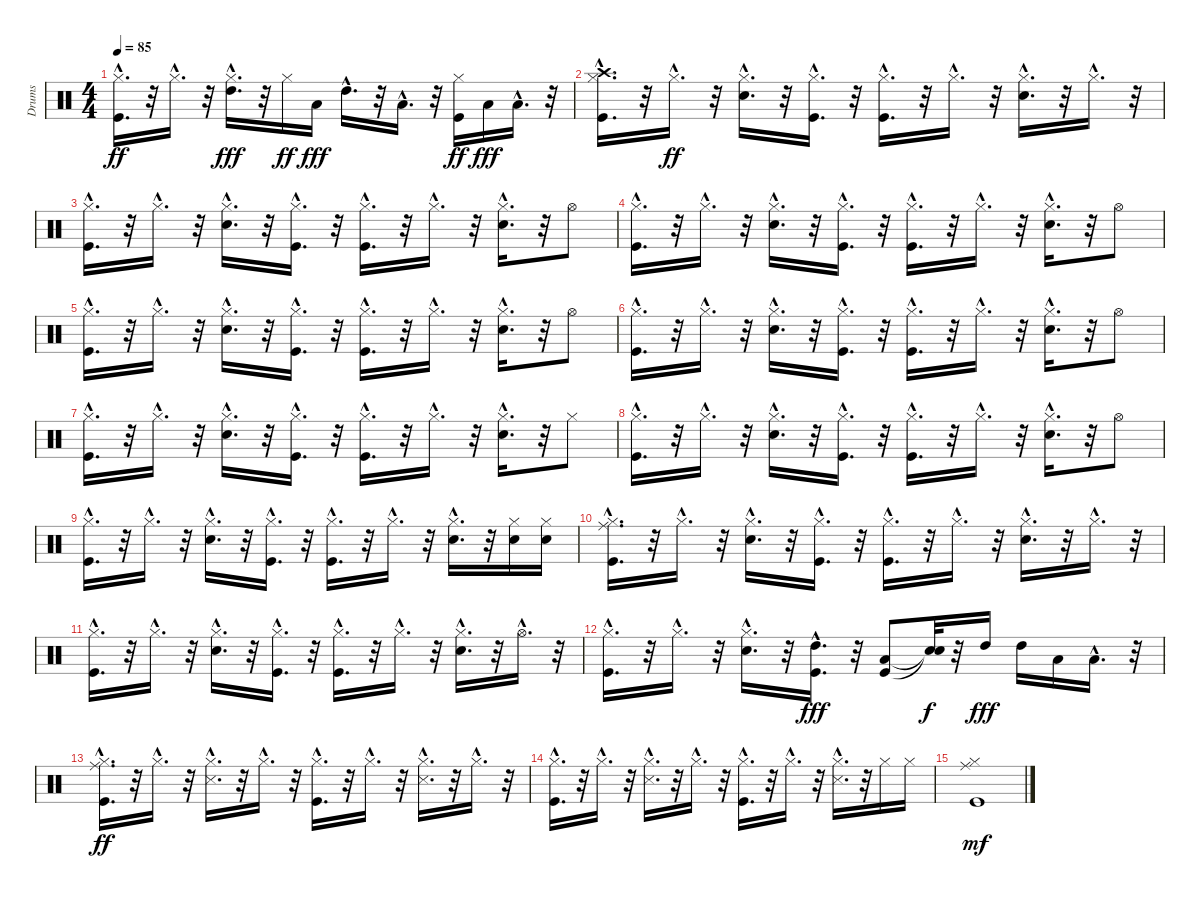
\track ("Drums" "Drums") {instrument percussion}
\staff {score}
\articulation defaults
\ts (4 4)
\tempo 85
\clef neutral
\ks c
("Hi-Hat (closed)"{hac} "Kick (hit)"{hac}).16{d dy ff} r.32 "Hi-Hat (closed)"{hac}.16{d} r.32 ("Hi-Hat (closed)"{hac} "High Tom (hit)"{hac}).16{d dy fff} r.32 "Hi-Hat (closed)".16{dy ff} "Low Tom (hit)".16{dy fff} "High Tom (hit)"{hac}.16{d} r.32 "Low Tom (hit)"{hac}.16{d} r.32 ("Hi-Hat (closed)" "Kick (hit)").16{dy ff} "Low Tom (hit)".16{dy fff} "Low Floor Tom (hit)"{hac}.16{d} r.32 |
("Hi-Hat (closed)"{hac} "Kick (hit)"{hac} "Crash high (hit)"{hac}).16{d} r.32 "Hi-Hat (closed)"{hac}.16{d dy ff} r.32 ("Hi-Hat (closed)"{hac} "Snare (hit) 2"{hac}).16{d} r.32 ("Kick (hit)"{hac} "Hi-Hat (closed)"{hac}).16{d} r.32 ("Hi-Hat (closed)"{hac} "Kick (hit)"{hac}).16{d} r.32 "Hi-Hat (closed)"{hac}.16{d} r.32 ("Hi-Hat (closed)"{hac} "Snare (hit) 2"{hac}).16{d} r.32 "Hi-Hat (closed)"{hac}.16{d} r.32 |
("Kick (hit)"{hac} "Hi-Hat (closed)"{hac}).16{d} r.32 "Hi-Hat (closed)"{hac}.16{d} r.32 ("Snare (hit) 2"{hac} "Hi-Hat (closed)"{hac}).16{d} r.32 ("Kick (hit)"{hac} "Hi-Hat (closed)"{hac}).16{d} r.32 ("Kick (hit)"{hac} "Hi-Hat (closed)"{hac}).16{d} r.32 "Hi-Hat (closed)"{hac}.16{d} r.32 ("Snare (hit) 2"{hac} "Hi-Hat (closed)"{hac}).16{d} r.32 "Hi-Hat (open)".8 |
("Hi-Hat (closed)"{hac} "Kick (hit)"{hac}).16{d} r.32 "Hi-Hat (closed)"{hac}.16{d} r.32 ("Hi-Hat (closed)"{hac} "Snare (hit) 2"{hac}).16{d} r.32 ("Kick (hit)"{hac} "Hi-Hat (closed)"{hac}).16{d} r.32 ("Hi-Hat (closed)"{hac} "Kick (hit)"{hac}).16{d} r.32 "Hi-Hat (closed)"{hac}.16{d} r.32 ("Hi-Hat (closed)"{hac} "Snare (hit) 2"{hac}).16{d} r.32 "Hi-Hat (open)".8 |
("Hi-Hat (closed)"{hac} "Kick (hit)"{hac}).16{d} r.32 "Hi-Hat (closed)"{hac}.16{d} r.32 ("Hi-Hat (closed)"{hac} "Snare (hit) 2"{hac}).16{d} r.32 ("Kick (hit)"{hac} "Hi-Hat (closed)"{hac}).16{d} r.32 ("Hi-Hat (closed)"{hac} "Kick (hit)"{hac}).16{d} r.32 "Hi-Hat (closed)"{hac}.16{d} r.32 ("Hi-Hat (closed)"{hac} "Snare (hit) 2"{hac}).16{d} r.32 "Hi-Hat (open)".8 |
("Hi-Hat (closed)"{hac} "Kick (hit)"{hac}).16{d} r.32 "Hi-Hat (closed)"{hac}.16{d} r.32 ("Hi-Hat (closed)"{hac} "Snare (hit) 2"{hac}).16{d} r.32 ("Kick (hit)"{hac} "Hi-Hat (closed)"{hac}).16{d} r.32 ("Hi-Hat (closed)"{hac} "Kick (hit)"{hac}).16{d} r.32 "Hi-Hat (closed)"{hac}.16{d} r.32 ("Hi-Hat (closed)"{hac} "Snare (hit) 2"{hac}).16{d} r.32 "Hi-Hat (open)".8 |
("Hi-Hat (closed)"{hac} "Kick (hit)"{hac}).16{d} r.32 "Hi-Hat (closed)"{hac}.16{d} r.32 ("Hi-Hat (closed)"{hac} "Snare (hit) 2"{hac}).16{d} r.32 ("Kick (hit)"{hac} "Hi-Hat (closed)"{hac}).16{d} r.32 ("Hi-Hat (closed)"{hac} "Kick (hit)"{hac}).16{d} r.32 "Hi-Hat (closed)"{hac}.16{d} r.32 ("Hi-Hat (closed)"{hac} "Snare (hit) 2"{hac}).16{d} r.32 "Hi-Hat (closed)".8 |
("Hi-Hat (closed)"{hac} "Kick (hit)"{hac}).16{d} r.32 "Hi-Hat (closed)"{hac}.16{d} r.32 ("Hi-Hat (closed)"{hac} "Snare (hit) 2"{hac}).16{d} r.32 ("Kick (hit)"{hac} "Hi-Hat (closed)"{hac}).16{d} r.32 ("Hi-Hat (closed)"{hac} "Kick (hit)"{hac}).16{d} r.32 "Hi-Hat (closed)"{hac}.16{d} r.32 ("Hi-Hat (closed)"{hac} "Snare (hit) 2"{hac}).16{d} r.32 "Hi-Hat (open)".8 |
("Hi-Hat (closed)"{hac} "Kick (hit)"{hac}).16{d} r.32 "Hi-Hat (closed)"{hac}.16{d} r.32 ("Hi-Hat (closed)"{hac} "Snare (hit) 2"{hac}).16{d} r.32 ("Kick (hit)"{hac} "Hi-Hat (closed)"{hac}).16{d} r.32 ("Hi-Hat (closed)"{hac} "Kick (hit)"{hac}).16{d} r.32 "Hi-Hat (closed)"{hac}.16{d} r.32 ("Hi-Hat (closed)"{hac} "Snare (hit) 2"{hac}).16{d} r.32 ("Hi-Hat (closed)" "Snare (hit) 2").16 ("Hi-Hat (closed)" "Snare (hit) 2").16 |
("Ride (middle)"{hac} "Hi-Hat (closed)"{hac} "Kick (hit)"{hac}).16{d} r.32 "Hi-Hat (closed)"{hac}.16{d} r.32 ("Hi-Hat (closed)"{hac} "Snare (hit) 2"{hac}).16{d} r.32 ("Kick (hit)"{hac} "Hi-Hat (closed)"{hac}).16{d} r.32 ("Hi-Hat (closed)"{hac} "Kick (hit)"{hac}).16{d} r.32 "Hi-Hat (closed)"{hac}.16{d} r.32 ("Hi-Hat (closed)"{hac} "Snare (hit) 2"{hac}).16{d} r.32 "Hi-Hat (closed)"{hac}.16{d} r.32 |
("Hi-Hat (closed)"{hac} "Kick (hit)"{hac}).16{d} r.32 "Hi-Hat (closed)"{hac}.16{d} r.32 ("Hi-Hat (closed)"{hac} "Snare (hit) 2"{hac}).16{d} r.32 ("Kick (hit)"{hac} "Hi-Hat (closed)"{hac}).16{d} r.32 ("Hi-Hat (closed)"{hac} "Kick (hit)"{hac}).16{d} r.32 "Hi-Hat (closed)"{hac}.16{d} r.32 ("Hi-Hat (closed)"{hac} "Snare (hit) 2"{hac}).16{d} r.32 "Hi-Hat (open)"{hac}.16{d} r.32 |
("Kick (hit)"{hac} "Hi-Hat (closed)"{hac}).16{d} r.32 "Hi-Hat (closed)"{hac}.16{d} r.32 ("Snare (hit) 2"{hac} "Hi-Hat (closed)"{hac}).16{d} r.32 ("Kick (hit)"{hac} "High Tom (hit)"{hac}).16{d dy fff} r.32 ("Kick (hit)" "Low Tom (hit)").8 ("Snare (hit)"{t} "Snare (hit)"{t}).32{dy f} r.32 "High Tom (hit)".16{dy fff} "High Tom (hit)".16 "Low Tom (hit)".16 "Low Tom (hit)"{hac}.16{d} r.32 |
("Ride (middle)"{hac} "Hi-Hat (closed)"{hac} "Kick (hit)"{hac}).16{d dy ff} r.32 "Hi-Hat (closed)"{hac}.16{d} r.32 ("Hi-Hat (closed)"{hac} "Snare (side stick) 3"{hac}).16{d} r.32 "Hi-Hat (closed)"{hac}.16{d} r.32 ("Hi-Hat (closed)"{hac} "Kick (hit)"{hac}).16{d} r.32 "Hi-Hat (closed)"{hac}.16{d} r.32 ("Hi-Hat (closed)"{hac} "Snare (side stick) 3"{hac}).16{d} r.32 "Hi-Hat (closed)"{hac}.16{d} r.32 |
("Kick (hit)"{hac} "Hi-Hat (closed)"{hac}).16{d} r.32 "Hi-Hat (closed)"{hac}.16{d} r.32 ("Snare (side stick) 3"{hac} "Hi-Hat (closed)"{hac}).16{d} r.32 "Hi-Hat (closed)"{hac}.16{d} r.32 ("Kick (hit)"{hac} "Hi-Hat (closed)"{hac}).16{d} r.32 "Hi-Hat (closed)"{hac}.16{d} r.32 ("Snare (side stick) 3"{hac} "Hi-Hat (closed)"{hac}).16{d} r.32 "Hi-Hat (closed)".16 "Hi-Hat (closed)".16 |
("Ride (middle)" "Hi-Hat (closed)" "Kick (hit)").1{dy mf}
